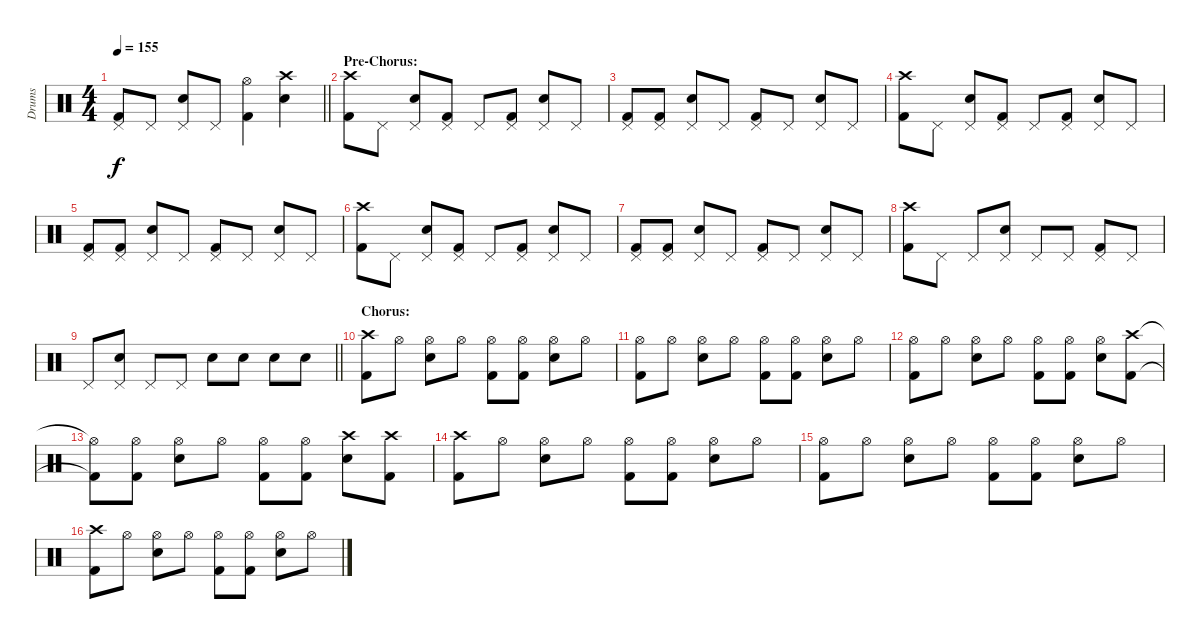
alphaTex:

\track ("Drums" "Drums") {instrument percussion}
\staff {score}
\articulation defaults
\ts (4 4)
\tempo 155
\clef neutral
\barLineRight lightlight
\ks c
("Pedal Hi-Hat (hit)" "Kick (hit) 2").8{dy f} "Pedal Hi-Hat (hit)".8 ("Pedal Hi-Hat (hit)" "Electric Snare (hit)").8 "Pedal Hi-Hat (hit)".8 ("Hi-Hat (open)" "Kick (hit) 2").4 ("Crash high (hit)" "Electric Snare (hit)").4 |
\section ("" "Pre-Chorus:")
("Crash high (hit)" "Kick (hit) 2").8 "Pedal Hi-Hat (hit)".8 ("Pedal Hi-Hat (hit)" "Electric Snare (hit)").8 ("Pedal Hi-Hat (hit)" "Kick (hit) 2").8 "Pedal Hi-Hat (hit)".8 ("Pedal Hi-Hat (hit)" "Kick (hit) 2").8 ("Pedal Hi-Hat (hit)" "Electric Snare (hit)").8 "Pedal Hi-Hat (hit)".8 |
("Pedal Hi-Hat (hit)" "Kick (hit) 2").8 ("Pedal Hi-Hat (hit)" "Kick (hit) 2").8 ("Pedal Hi-Hat (hit)" "Electric Snare (hit)").8 "Pedal Hi-Hat (hit)".8 ("Pedal Hi-Hat (hit)" "Kick (hit) 2").8 "Pedal Hi-Hat (hit)".8 ("Pedal Hi-Hat (hit)" "Electric Snare (hit)").8 "Pedal Hi-Hat (hit)".8 |
("Crash high (hit)" "Kick (hit) 2").8 "Pedal Hi-Hat (hit)".8 ("Pedal Hi-Hat (hit)" "Electric Snare (hit)").8 ("Pedal Hi-Hat (hit)" "Kick (hit) 2").8 "Pedal Hi-Hat (hit)".8 ("Pedal Hi-Hat (hit)" "Kick (hit) 2").8 ("Pedal Hi-Hat (hit)" "Electric Snare (hit)").8 "Pedal Hi-Hat (hit)".8 |
("Pedal Hi-Hat (hit)" "Kick (hit) 2").8 ("Pedal Hi-Hat (hit)" "Kick (hit) 2").8 ("Pedal Hi-Hat (hit)" "Electric Snare (hit)").8 "Pedal Hi-Hat (hit)".8 ("Pedal Hi-Hat (hit)" "Kick (hit) 2").8 "Pedal Hi-Hat (hit)".8 ("Pedal Hi-Hat (hit)" "Electric Snare (hit)").8 "Pedal Hi-Hat (hit)".8 |
("Crash high (hit)" "Kick (hit) 2").8 "Pedal Hi-Hat (hit)".8 ("Pedal Hi-Hat (hit)" "Electric Snare (hit)").8 ("Pedal Hi-Hat (hit)" "Kick (hit) 2").8 "Pedal Hi-Hat (hit)".8 ("Pedal Hi-Hat (hit)" "Kick (hit) 2").8 ("Pedal Hi-Hat (hit)" "Electric Snare (hit)").8 "Pedal Hi-Hat (hit)".8 |
("Pedal Hi-Hat (hit)" "Kick (hit) 2").8 ("Pedal Hi-Hat (hit)" "Kick (hit) 2").8 ("Pedal Hi-Hat (hit)" "Electric Snare (hit)").8 "Pedal Hi-Hat (hit)".8 ("Pedal Hi-Hat (hit)" "Kick (hit) 2").8 "Pedal Hi-Hat (hit)".8 ("Pedal Hi-Hat (hit)" "Electric Snare (hit)").8 "Pedal Hi-Hat (hit)".8 |
("Crash high (hit)" "Kick (hit) 2").8 "Pedal Hi-Hat (hit)".8 "Pedal Hi-Hat (hit)".8 ("Pedal Hi-Hat (hit)" "Electric Snare (hit)").8 "Pedal Hi-Hat (hit)".8 "Pedal Hi-Hat (hit)".8 ("Pedal Hi-Hat (hit)" "Kick (hit) 2").8 "Pedal Hi-Hat (hit)".8 |
\barLineRight lightlight "Pedal Hi-Hat (hit)".8
("Pedal Hi-Hat (hit)" "Electric Snare (hit)").8 "Pedal Hi-Hat (hit)".8 "Pedal Hi-Hat (hit)".8 "Electric Snare (hit)".8 "Electric Snare (hit)".8 "Electric Snare (hit)".8 "Electric Snare (hit)".8 |
\section ("" "Chorus:")
("Crash high (hit)" "Kick (hit) 2").8 "Hi-Hat (open)".8 ("Hi-Hat (open)" "Electric Snare (hit)").8 "Hi-Hat (open)".8 ("Hi-Hat (open)" "Kick (hit) 2").8 ("Hi-Hat (open)" "Kick (hit) 2").8 ("Hi-Hat (open)" "Electric Snare (hit)").8 "Hi-Hat (open)".8 |
("Hi-Hat (open)" "Kick (hit) 2").8 "Hi-Hat (open)".8 ("Hi-Hat (open)" "Electric Snare (hit)").8 "Hi-Hat (open)".8 ("Hi-Hat (open)" "Kick (hit) 2").8 ("Hi-Hat (open)" "Kick (hit) 2").8 ("Hi-Hat (open)" "Electric Snare (hit)").8 "Hi-Hat (open)".8 |
("Hi-Hat (open)" "Kick (hit) 2").8 "Hi-Hat (open)".8 ("Hi-Hat (open)" "Electric Snare (hit)").8 "Hi-Hat (open)".8 ("Hi-Hat (open)" "Kick (hit) 2").8 ("Hi-Hat (open)" "Kick (hit) 2").8 ("Hi-Hat (open)" "Electric Snare (hit)").8 ("Crash high (hit)" "Kick (hit) 2").8 |
("Hi-Hat (open)"{t} "Kick (hit) 2"{t}).8 ("Hi-Hat (open)" "Kick (hit) 2").8 ("Hi-Hat (open)" "Electric Snare (hit)").8 "Hi-Hat (open)".8 ("Hi-Hat (open)" "Kick (hit) 2").8 ("Hi-Hat (open)" "Kick (hit) 2").8 ("Crash high (hit)" "Electric Snare (hit)").8 ("Crash high (hit)" "Kick (hit) 2").8 |
("Crash high (hit)" "Kick (hit) 2").8 "Hi-Hat (open)".8 ("Hi-Hat (open)" "Electric Snare (hit)").8 "Hi-Hat (open)".8 ("Hi-Hat (open)" "Kick (hit) 2").8 ("Hi-Hat (open)" "Kick (hit) 2").8 ("Hi-Hat (open)" "Electric Snare (hit)").8 "Hi-Hat (open)".8 |
("Hi-Hat (open)" "Kick (hit) 2").8 "Hi-Hat (open)".8 ("Hi-Hat (open)" "Electric Snare (hit)").8 "Hi-Hat (open)".8 ("Hi-Hat (open)" "Kick (hit) 2").8 ("Hi-Hat (open)" "Kick (hit) 2").8 ("Hi-Hat (open)" "Electric Snare (hit)").8 "Hi-Hat (open)".8 |
("Crash high (hit)" "Kick (hit) 2").8 "Hi-Hat (open)".8 ("Hi-Hat (open)" "Electric Snare (hit)").8 "Hi-Hat (open)".8 ("Hi-Hat (open)" "Kick (hit) 2").8 ("Hi-Hat (open)" "Kick (hit) 2").8 ("Hi-Hat (open)" "Electric Snare (hit)").8 "Hi-Hat (open)".8
